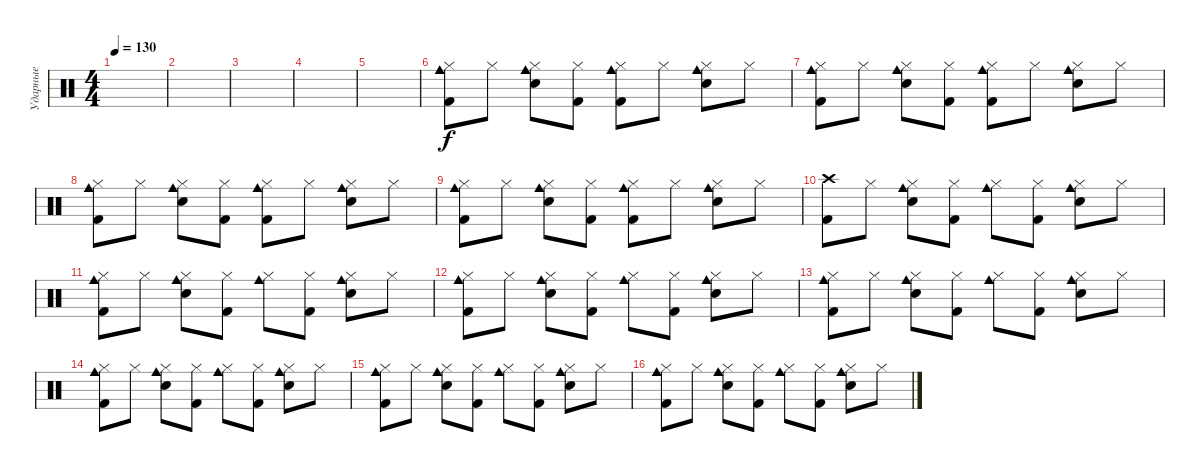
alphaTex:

\track ("Ударные" "Ударные") {instrument percussion}
\staff {score}
\articulation defaults
\ts (4 4)
\tempo 130
\clef neutral
\ks c
|
|
|
|
|
("Hi-Hat (closed)" "Cowbell medium (hit)" "Kick (hit) 2").8 "Hi-Hat (closed)".8 ("Hi-Hat (closed)" "Cowbell medium (hit)" "Snare (hit) 2").8 ("Hi-Hat (closed)" "Kick (hit) 2").8 ("Hi-Hat (closed)" "Cowbell medium (hit)" "Kick (hit) 2").8 "Hi-Hat (closed)".8 ("Hi-Hat (closed)" "Cowbell medium (hit)" "Snare (hit) 2").8 "Hi-Hat (closed)".8 |
("Hi-Hat (closed)" "Cowbell medium (hit)" "Kick (hit) 2").8 "Hi-Hat (closed)".8 ("Hi-Hat (closed)" "Cowbell medium (hit)" "Snare (hit) 2").8 ("Hi-Hat (closed)" "Kick (hit) 2").8 ("Hi-Hat (closed)" "Cowbell medium (hit)" "Kick (hit) 2").8 "Hi-Hat (closed)".8 ("Hi-Hat (closed)" "Cowbell medium (hit)" "Snare (hit) 2").8 "Hi-Hat (closed)".8 |
("Hi-Hat (closed)" "Cowbell medium (hit)" "Kick (hit) 2").8 "Hi-Hat (closed)".8 ("Hi-Hat (closed)" "Cowbell medium (hit)" "Snare (hit) 2").8 ("Hi-Hat (closed)" "Kick (hit) 2").8 ("Hi-Hat (closed)" "Cowbell medium (hit)" "Kick (hit) 2").8 "Hi-Hat (closed)".8 ("Hi-Hat (closed)" "Cowbell medium (hit)" "Snare (hit) 2").8 "Hi-Hat (closed)".8 |
("Hi-Hat (closed)" "Cowbell medium (hit)" "Kick (hit) 2").8 "Hi-Hat (closed)".8 ("Hi-Hat (closed)" "Cowbell medium (hit)" "Snare (hit) 2").8 ("Hi-Hat (closed)" "Kick (hit) 2").8 ("Hi-Hat (closed)" "Cowbell medium (hit)" "Kick (hit) 2").8 "Hi-Hat (closed)".8 ("Hi-Hat (closed)" "Cowbell medium (hit)" "Snare (hit) 2").8 "Hi-Hat (closed)".8 |
("Crash high (hit)" "Kick (hit) 2").8 "Hi-Hat (closed)".8 ("Hi-Hat (closed)" "Cowbell medium (hit)" "Snare (hit) 2").8 ("Hi-Hat (closed)" "Kick (hit) 2").8 ("Hi-Hat (closed)" "Cowbell medium (hit)").8 ("Hi-Hat (closed)" "Kick (hit) 2").8 ("Hi-Hat (closed)" "Cowbell medium (hit)" "Snare (hit) 2").8 "Hi-Hat (closed)".8 |
("Hi-Hat (closed)" "Cowbell medium (hit)" "Kick (hit) 2").8 "Hi-Hat (closed)".8 ("Hi-Hat (closed)" "Cowbell medium (hit)" "Snare (hit) 2").8 ("Hi-Hat (closed)" "Kick (hit) 2").8 ("Hi-Hat (closed)" "Cowbell medium (hit)").8 ("Hi-Hat (closed)" "Kick (hit) 2").8 ("Hi-Hat (closed)" "Cowbell medium (hit)" "Snare (hit) 2").8 "Hi-Hat (closed)".8 |
("Hi-Hat (closed)" "Cowbell medium (hit)" "Kick (hit) 2").8 "Hi-Hat (closed)".8 ("Hi-Hat (closed)" "Cowbell medium (hit)" "Snare (hit) 2").8 ("Hi-Hat (closed)" "Kick (hit) 2").8 ("Hi-Hat (closed)" "Cowbell medium (hit)").8 ("Hi-Hat (closed)" "Kick (hit) 2").8 ("Hi-Hat (closed)" "Cowbell medium (hit)" "Snare (hit) 2").8 "Hi-Hat (closed)".8 |
("Hi-Hat (closed)" "Cowbell medium (hit)" "Kick (hit) 2").8 "Hi-Hat (closed)".8 ("Hi-Hat (closed)" "Cowbell medium (hit)" "Snare (hit) 2").8 ("Hi-Hat (closed)" "Kick (hit) 2").8 ("Hi-Hat (closed)" "Cowbell medium (hit)").8 ("Hi-Hat (closed)" "Kick (hit) 2").8 ("Hi-Hat (closed)" "Cowbell medium (hit)" "Snare (hit) 2").8 "Hi-Hat (closed)".8 |
("Hi-Hat (closed)" "Cowbell medium (hit)" "Kick (hit) 2").8 "Hi-Hat (closed)".8 ("Hi-Hat (closed)" "Cowbell medium (hit)" "Snare (hit) 2").8 ("Hi-Hat (closed)" "Kick (hit) 2").8 ("Hi-Hat (closed)" "Cowbell medium (hit)").8 ("Hi-Hat (closed)" "Kick (hit) 2").8 ("Hi-Hat (closed)" "Cowbell medium (hit)" "Snare (hit) 2").8 "Hi-Hat (closed)".8 |
("Hi-Hat (closed)" "Cowbell medium (hit)" "Kick (hit) 2").8 "Hi-Hat (closed)".8 ("Hi-Hat (closed)" "Cowbell medium (hit)" "Snare (hit) 2").8 ("Hi-Hat (closed)" "Kick (hit) 2").8 ("Hi-Hat (closed)" "Cowbell medium (hit)").8 ("Hi-Hat (closed)" "Kick (hit) 2").8 ("Hi-Hat (closed)" "Cowbell medium (hit)" "Snare (hit) 2").8 "Hi-Hat (closed)".8 |
("Hi-Hat (closed)" "Cowbell medium (hit)" "Kick (hit) 2").8 "Hi-Hat (closed)".8 ("Hi-Hat (closed)" "Cowbell medium (hit)" "Snare (hit) 2").8 ("Hi-Hat (closed)" "Kick (hit) 2").8 ("Hi-Hat (closed)" "Cowbell medium (hit)").8 ("Hi-Hat (closed)" "Kick (hit) 2").8 ("Hi-Hat (closed)" "Cowbell medium (hit)" "Snare (hit) 2").8 "Hi-Hat (closed)".8
